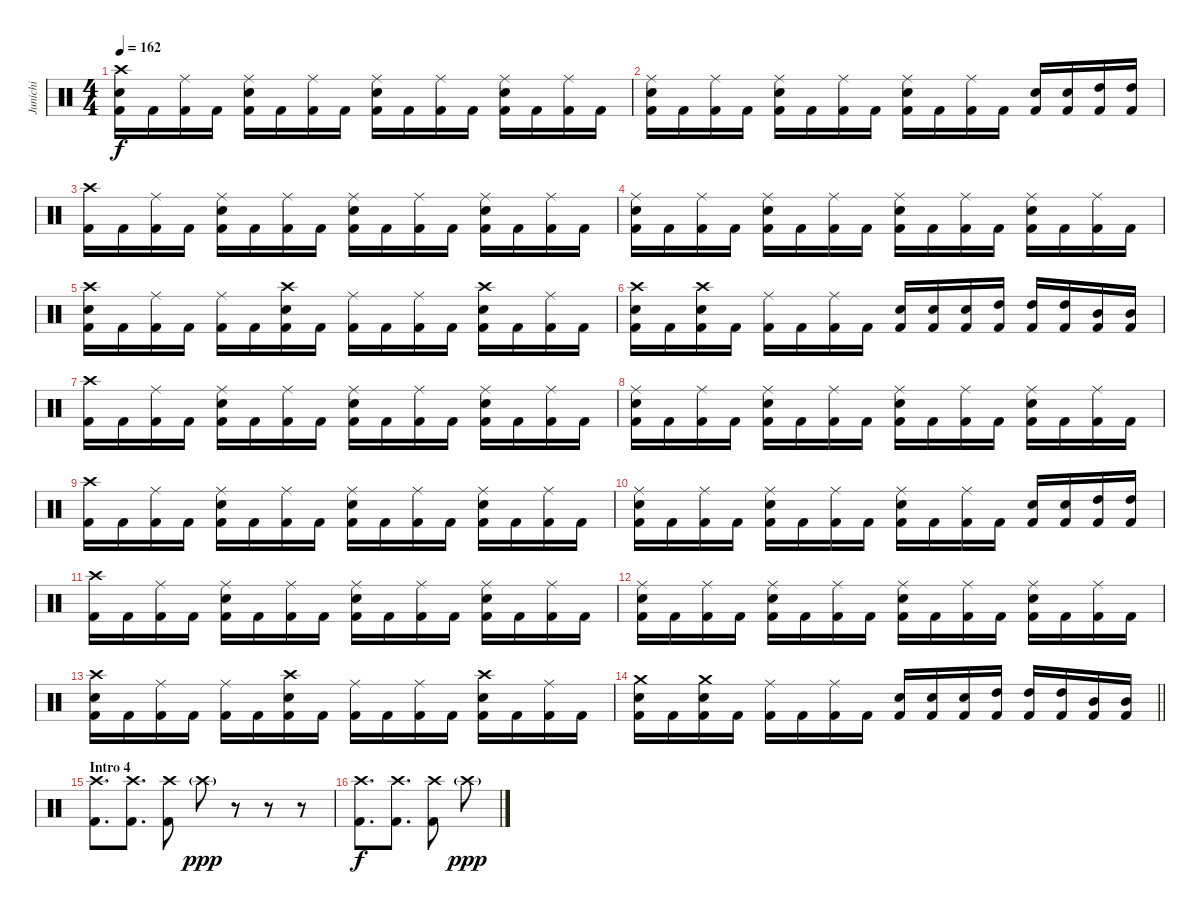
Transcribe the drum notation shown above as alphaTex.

\track ("Junichi" "Junichi") {instrument percussion}
\staff {score}
\articulation defaults
\ts (4 4)
\tempo 162
\clef neutral
\ks c
("Crash high (hit)" "Electric Snare (hit)" "Kick (hit) 2").16{dy f} "Kick (hit) 2".16 ("Ride (middle)" "Kick (hit) 2").16 "Kick (hit) 2".16 ("Ride (middle)" "Electric Snare (hit)" "Kick (hit) 2").16 "Kick (hit) 2".16 ("Ride (middle)" "Kick (hit) 2").16 "Kick (hit) 2".16 ("Ride (middle)" "Electric Snare (hit)" "Kick (hit) 2").16 "Kick (hit) 2".16 ("Ride (middle)" "Kick (hit) 2").16 "Kick (hit) 2".16 ("Ride (middle)" "Electric Snare (hit)" "Kick (hit) 2").16 "Kick (hit) 2".16 ("Ride (middle)" "Kick (hit) 2").16 "Kick (hit) 2".16 |
("Ride (middle)" "Electric Snare (hit)" "Kick (hit) 2").16 "Kick (hit) 2".16 ("Ride (middle)" "Kick (hit) 2").16 "Kick (hit) 2".16 ("Ride (middle)" "Electric Snare (hit)" "Kick (hit) 2").16 "Kick (hit) 2".16 ("Ride (middle)" "Kick (hit) 2").16 "Kick (hit) 2".16 ("Ride (middle)" "Electric Snare (hit)" "Kick (hit) 2").16 "Kick (hit) 2".16 ("Ride (middle)" "Kick (hit) 2").16 "Kick (hit) 2".16 ("Electric Snare (hit)" "Kick (hit) 2").16 ("Electric Snare (hit)" "Kick (hit) 2").16 ("High Tom (hit)" "Kick (hit) 2").16 ("High Tom (hit)" "Kick (hit) 2").16 |
("Crash high (hit)" "Kick (hit) 2").16 "Kick (hit) 2".16 ("Ride (middle)" "Kick (hit) 2").16 "Kick (hit) 2".16 ("Ride (middle)" "Electric Snare (hit)" "Kick (hit) 2").16 "Kick (hit) 2".16 ("Ride (middle)" "Kick (hit) 2").16 "Kick (hit) 2".16 ("Ride (middle)" "Electric Snare (hit)" "Kick (hit) 2").16 "Kick (hit) 2".16 ("Ride (middle)" "Kick (hit) 2").16 "Kick (hit) 2".16 ("Ride (middle)" "Electric Snare (hit)" "Kick (hit) 2").16 "Kick (hit) 2".16 ("Ride (middle)" "Kick (hit) 2").16 "Kick (hit) 2".16 |
("Ride (middle)" "Electric Snare (hit)" "Kick (hit) 2").16 "Kick (hit) 2".16 ("Ride (middle)" "Kick (hit) 2").16 "Kick (hit) 2".16 ("Ride (middle)" "Electric Snare (hit)" "Kick (hit) 2").16 "Kick (hit) 2".16 ("Ride (middle)" "Kick (hit) 2").16 "Kick (hit) 2".16 ("Ride (middle)" "Electric Snare (hit)" "Kick (hit) 2").16 "Kick (hit) 2".16 ("Ride (middle)" "Kick (hit) 2").16 "Kick (hit) 2".16 ("Ride (middle)" "Electric Snare (hit)" "Kick (hit) 2").16 "Kick (hit) 2".16 ("Ride (middle)" "Kick (hit) 2").16 "Kick (hit) 2".16 |
("Crash high (hit)" "Electric Snare (hit)" "Kick (hit) 2").16 "Kick (hit) 2".16 ("Ride (middle)" "Kick (hit) 2").16 "Kick (hit) 2".16 ("Ride (middle)" "Kick (hit) 2").16 "Kick (hit) 2".16 ("Crash high (hit)" "Electric Snare (hit)" "Kick (hit) 2").16 "Kick (hit) 2".16 ("Ride (middle)" "Kick (hit) 2").16 "Kick (hit) 2".16 ("Ride (middle)" "Kick (hit) 2").16 "Kick (hit) 2".16 ("Crash high (hit)" "Electric Snare (hit)" "Kick (hit) 2").16 "Kick (hit) 2".16 ("Ride (middle)" "Kick (hit) 2").16 "Kick (hit) 2".16 |
("Crash high (hit)" "Electric Snare (hit)" "Kick (hit) 2").16 "Kick (hit) 2".16 ("Crash high (hit)" "Electric Snare (hit)" "Kick (hit) 2").16 "Kick (hit) 2".16 ("Ride (middle)" "Kick (hit) 2").16 "Kick (hit) 2".16 ("Ride (middle)" "Kick (hit) 2").16 "Kick (hit) 2".16 ("Electric Snare (hit)" "Kick (hit) 2").16 ("Electric Snare (hit)" "Kick (hit) 2").16 ("Electric Snare (hit)" "Kick (hit) 2").16 ("High Tom (hit)" "Kick (hit) 2").16 ("High Tom (hit)" "Kick (hit) 2").16 ("High Tom (hit)" "Kick (hit) 2").16 ("Mid Tom (hit)" "Kick (hit) 2").16 ("Mid Tom (hit)" "Kick (hit) 2").16 |
("Crash high (hit)" "Kick (hit) 2").16 "Kick (hit) 2".16 ("Ride (middle)" "Kick (hit) 2").16 "Kick (hit) 2".16 ("Ride (middle)" "Electric Snare (hit)" "Kick (hit) 2").16 "Kick (hit) 2".16 ("Ride (middle)" "Kick (hit) 2").16 "Kick (hit) 2".16 ("Ride (middle)" "Electric Snare (hit)" "Kick (hit) 2").16 "Kick (hit) 2".16 ("Ride (middle)" "Kick (hit) 2").16 "Kick (hit) 2".16 ("Ride (middle)" "Electric Snare (hit)" "Kick (hit) 2").16 "Kick (hit) 2".16 ("Ride (middle)" "Kick (hit) 2").16 "Kick (hit) 2".16 |
("Ride (middle)" "Electric Snare (hit)" "Kick (hit) 2").16 "Kick (hit) 2".16 ("Ride (middle)" "Kick (hit) 2").16 "Kick (hit) 2".16 ("Ride (middle)" "Electric Snare (hit)" "Kick (hit) 2").16 "Kick (hit) 2".16 ("Ride (middle)" "Kick (hit) 2").16 "Kick (hit) 2".16 ("Ride (middle)" "Electric Snare (hit)" "Kick (hit) 2").16 "Kick (hit) 2".16 ("Ride (middle)" "Kick (hit) 2").16 "Kick (hit) 2".16 ("Ride (middle)" "Electric Snare (hit)" "Kick (hit) 2").16 "Kick (hit) 2".16 ("Ride (middle)" "Kick (hit) 2").16 "Kick (hit) 2".16 |
("Crash high (hit)" "Kick (hit) 2").16 "Kick (hit) 2".16 ("Ride (middle)" "Kick (hit) 2").16 "Kick (hit) 2".16 ("Ride (middle)" "Electric Snare (hit)" "Kick (hit) 2").16 "Kick (hit) 2".16 ("Ride (middle)" "Kick (hit) 2").16 "Kick (hit) 2".16 ("Ride (middle)" "Electric Snare (hit)" "Kick (hit) 2").16 "Kick (hit) 2".16 ("Ride (middle)" "Kick (hit) 2").16 "Kick (hit) 2".16 ("Ride (middle)" "Electric Snare (hit)" "Kick (hit) 2").16 "Kick (hit) 2".16 ("Ride (middle)" "Kick (hit) 2").16 "Kick (hit) 2".16 |
("Ride (middle)" "Electric Snare (hit)" "Kick (hit) 2").16 "Kick (hit) 2".16 ("Ride (middle)" "Kick (hit) 2").16 "Kick (hit) 2".16 ("Ride (middle)" "Electric Snare (hit)" "Kick (hit) 2").16 "Kick (hit) 2".16 ("Ride (middle)" "Kick (hit) 2").16 "Kick (hit) 2".16 ("Ride (middle)" "Electric Snare (hit)" "Kick (hit) 2").16 "Kick (hit) 2".16 ("Ride (middle)" "Kick (hit) 2").16 "Kick (hit) 2".16 ("Electric Snare (hit)" "Kick (hit) 2").16 ("Electric Snare (hit)" "Kick (hit) 2").16 ("High Tom (hit)" "Kick (hit) 2").16 ("High Tom (hit)" "Kick (hit) 2").16 |
("Crash high (hit)" "Kick (hit) 2").16 "Kick (hit) 2".16 ("Ride (middle)" "Kick (hit) 2").16 "Kick (hit) 2".16 ("Ride (middle)" "Electric Snare (hit)" "Kick (hit) 2").16 "Kick (hit) 2".16 ("Ride (middle)" "Kick (hit) 2").16 "Kick (hit) 2".16 ("Ride (middle)" "Electric Snare (hit)" "Kick (hit) 2").16 "Kick (hit) 2".16 ("Ride (middle)" "Kick (hit) 2").16 "Kick (hit) 2".16 ("Ride (middle)" "Electric Snare (hit)" "Kick (hit) 2").16 "Kick (hit) 2".16 ("Ride (middle)" "Kick (hit) 2").16 "Kick (hit) 2".16 |
("Ride (middle)" "Electric Snare (hit)" "Kick (hit) 2").16 "Kick (hit) 2".16 ("Ride (middle)" "Kick (hit) 2").16 "Kick (hit) 2".16 ("Ride (middle)" "Electric Snare (hit)" "Kick (hit) 2").16 "Kick (hit) 2".16 ("Ride (middle)" "Kick (hit) 2").16 "Kick (hit) 2".16 ("Ride (middle)" "Electric Snare (hit)" "Kick (hit) 2").16 "Kick (hit) 2".16 ("Ride (middle)" "Kick (hit) 2").16 "Kick (hit) 2".16 ("Ride (middle)" "Electric Snare (hit)" "Kick (hit) 2").16 "Kick (hit) 2".16 ("Ride (middle)" "Kick (hit) 2").16 "Kick (hit) 2".16 |
("Crash high (hit)" "Electric Snare (hit)" "Kick (hit) 2").16 "Kick (hit) 2".16 ("Ride (middle)" "Kick (hit) 2").16 "Kick (hit) 2".16 ("Ride (middle)" "Kick (hit) 2").16 "Kick (hit) 2".16 ("Crash high (hit)" "Electric Snare (hit)" "Kick (hit) 2").16 "Kick (hit) 2".16 ("Ride (middle)" "Kick (hit) 2").16 "Kick (hit) 2".16 ("Ride (middle)" "Kick (hit) 2").16 "Kick (hit) 2".16 ("Crash high (hit)" "Electric Snare (hit)" "Kick (hit) 2").16 "Kick (hit) 2".16 ("Ride (middle)" "Kick (hit) 2").16 "Kick (hit) 2".16 |
\barLineRight lightlight
("Crash medium (hit)" "Electric Snare (hit)" "Kick (hit) 2").16 "Kick (hit) 2".16 ("Crash medium (hit)" "Electric Snare (hit)" "Kick (hit) 2").16 "Kick (hit) 2".16 ("Ride (middle)" "Kick (hit) 2").16 "Kick (hit) 2".16 ("Ride (middle)" "Kick (hit) 2").16 "Kick (hit) 2".16 ("Electric Snare (hit)" "Kick (hit) 2").16 ("Electric Snare (hit)" "Kick (hit) 2").16 ("Electric Snare (hit)" "Kick (hit) 2").16 ("High Tom (hit)" "Kick (hit) 2").16 ("High Tom (hit)" "Kick (hit) 2").16 ("High Tom (hit)" "Kick (hit) 2").16 ("Mid Tom (hit)" "Kick (hit) 2").16 ("Mid Tom (hit)" "Kick (hit) 2").16 |
\section ("" "Intro 4")
("Crash high (hit)" "Kick (hit) 2").8{d} ("Crash high (hit)" "Kick (hit) 2").8{d} ("Crash high (hit)" "Kick (hit) 2").8 "Crash high (hit)"{g}.8{dy ppp} r.8 r.8 r.8 |
("Crash high (hit)" "Kick (hit) 2").8{d dy f} ("Crash high (hit)" "Kick (hit) 2").8{d} ("Crash high (hit)" "Kick (hit) 2").8 "Crash high (hit)"{g}.8{dy ppp}
